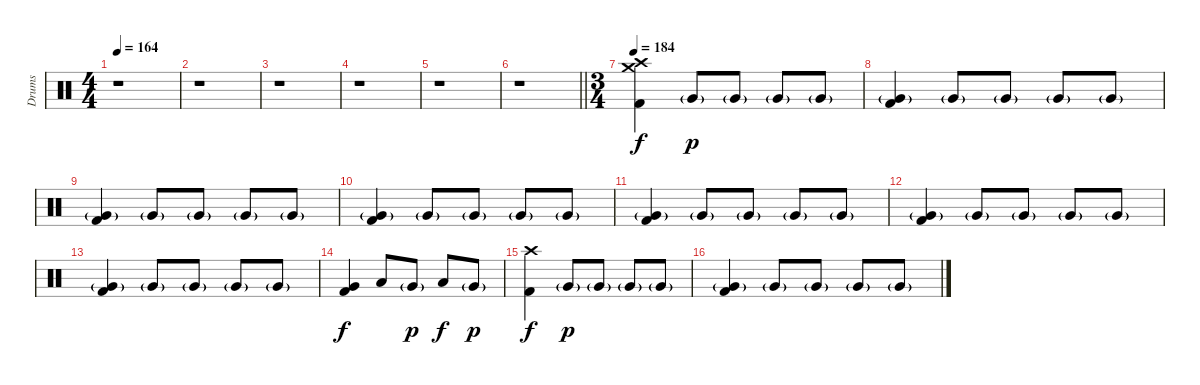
\track ("Drums" "Drums") {instrument percussion}
\staff {score}
\articulation defaults
\ts (4 4)
\tempo 164
\clef neutral
\ks c
r.1{dy f} |
r.1 |
r.1 |
r.1 |
r.1 |
\barLineRight lightlight
r.1 |
\ts (3 4)
\tempo 184
("Crash high (hit)" "Crash medium (hit)" "Kick (hit) 2").4 "Very Low Tom (hit)"{g}.8{dy p} "Very Low Tom (hit)"{g}.8 "Very Low Tom (hit)"{g}.8 "Very Low Tom (hit)"{g}.8 |
("Very Low Tom (hit)"{g} "Kick (hit) 2").4 "Very Low Tom (hit)"{g}.8 "Very Low Tom (hit)"{g}.8 "Very Low Tom (hit)"{g}.8 "Very Low Tom (hit)"{g}.8 |
("Very Low Tom (hit)"{g} "Kick (hit) 2").4 "Very Low Tom (hit)"{g}.8 "Very Low Tom (hit)"{g}.8 "Very Low Tom (hit)"{g}.8 "Very Low Tom (hit)"{g}.8 |
("Very Low Tom (hit)"{g} "Kick (hit) 2").4 "Very Low Tom (hit)"{g}.8 "Very Low Tom (hit)"{g}.8 "Very Low Tom (hit)"{g}.8 "Very Low Tom (hit)"{g}.8 |
("Very Low Tom (hit)"{g} "Kick (hit) 2").4 "Very Low Tom (hit)"{g}.8 "Very Low Tom (hit)"{g}.8 "Very Low Tom (hit)"{g}.8 "Very Low Tom (hit)"{g}.8 |
("Very Low Tom (hit)"{g} "Kick (hit) 2").4 "Very Low Tom (hit)"{g}.8 "Very Low Tom (hit)"{g}.8 "Very Low Tom (hit)"{g}.8 "Very Low Tom (hit)"{g}.8 |
("Very Low Tom (hit)"{g} "Kick (hit) 2").4 "Very Low Tom (hit)"{g}.8 "Very Low Tom (hit)"{g}.8 "Very Low Tom (hit)"{g}.8 "Very Low Tom (hit)"{g}.8 |
("Very Low Tom (hit)" "Kick (hit) 2").4{dy f} "Low Tom (hit)".8 "Very Low Tom (hit)"{g}.8{dy p} "Low Floor Tom (hit)".8{dy f} "Very Low Tom (hit)"{g}.8{dy p} |
("Crash high (hit)" "Kick (hit) 2").4{dy f} "Very Low Tom (hit)"{g}.8{dy p} "Very Low Tom (hit)"{g}.8 "Very Low Tom (hit)"{g}.8 "Very Low Tom (hit)"{g}.8 |
("Very Low Tom (hit)"{g} "Kick (hit) 2").4 "Very Low Tom (hit)"{g}.8 "Very Low Tom (hit)"{g}.8 "Very Low Tom (hit)"{g}.8 "Very Low Tom (hit)"{g}.8
